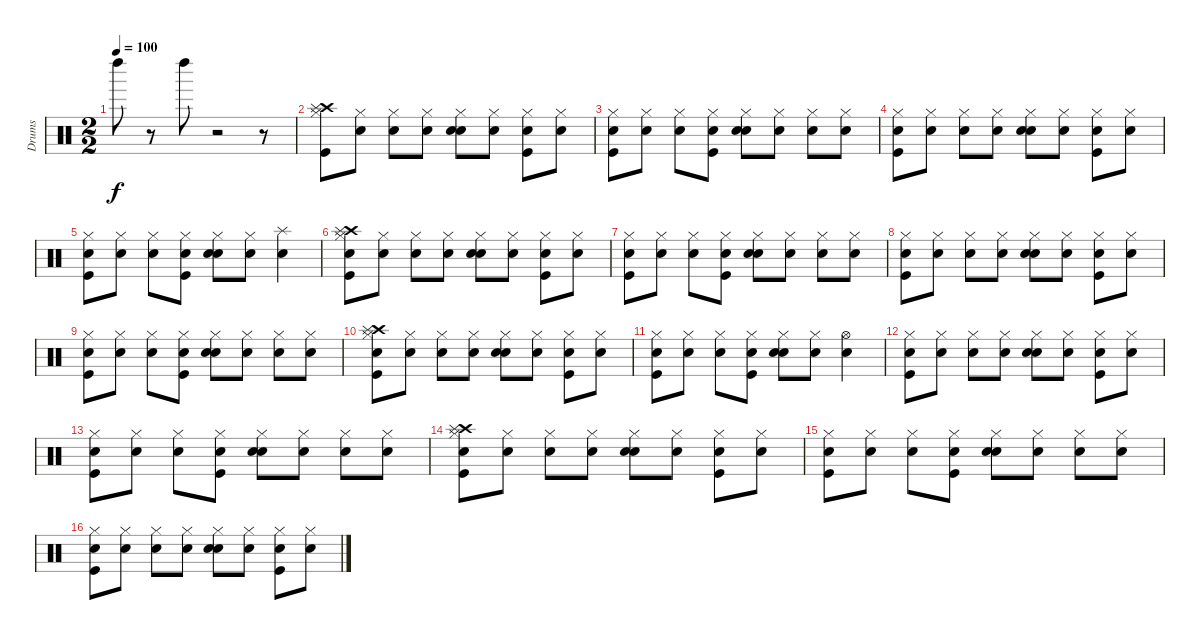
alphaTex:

\track ("Drums" "Drums") {instrument percussion}
\staff {score}
\articulation defaults
\ts (2 2)
\tempo 100
\clef neutral
\ks c "Left Maraca (hit)".8{dy f}
r.8 "Left Maraca (hit)".8 r.2 r.8 |
("Kick (hit)" "Crash high (hit)" "Splash (hit)" "Hi-Hat (closed)").8 ("Snare (hit)" "Hi-Hat (closed)").8 ("Snare (hit)" "Hi-Hat (closed)").8 ("Snare (hit)" "Hi-Hat (closed)").8 ("Snare (hit)" "Snare (hit) 2" "Hi-Hat (closed)").8 ("Snare (hit)" "Hi-Hat (closed)").8 ("Snare (hit)" "Kick (hit)" "Hi-Hat (closed)").8 ("Snare (hit)" "Hi-Hat (closed)").8 |
("Snare (hit)" "Kick (hit)" "Hi-Hat (closed)").8 ("Snare (hit)" "Hi-Hat (closed)").8 ("Snare (hit)" "Hi-Hat (closed)").8 ("Snare (hit)" "Kick (hit)" "Hi-Hat (closed)").8 ("Snare (hit)" "Snare (hit) 2" "Hi-Hat (closed)").8 ("Snare (hit)" "Hi-Hat (closed)").8 ("Snare (hit)" "Hi-Hat (closed)").8 ("Snare (hit)" "Hi-Hat (closed)").8 |
("Snare (hit)" "Kick (hit)" "Hi-Hat (closed)").8 ("Snare (hit)" "Hi-Hat (closed)").8 ("Snare (hit)" "Hi-Hat (closed)").8 ("Snare (hit)" "Hi-Hat (closed)").8 ("Snare (hit)" "Snare (hit) 2" "Hi-Hat (closed)").8 ("Snare (hit)" "Hi-Hat (closed)").8 ("Snare (hit)" "Kick (hit)" "Hi-Hat (closed)").8 ("Snare (hit)" "Hi-Hat (closed)").8 |
("Snare (hit)" "Kick (hit)" "Hi-Hat (closed)").8 ("Snare (hit)" "Hi-Hat (closed)").8 ("Snare (hit)" "Hi-Hat (closed)").8 ("Snare (hit)" "Kick (hit)" "Hi-Hat (closed)").8 ("Snare (hit)" "Snare (hit) 2" "Hi-Hat (closed)").8 ("Snare (hit)" "Hi-Hat (closed)").8 ("Snare (hit)" "Splash (hit)").4 |
("Snare (hit)" "Kick (hit)" "Crash high (hit)" "Splash (hit)" "Hi-Hat (closed)").8 ("Snare (hit)" "Hi-Hat (closed)").8 ("Snare (hit)" "Hi-Hat (closed)").8 ("Snare (hit)" "Hi-Hat (closed)").8 ("Snare (hit)" "Snare (hit) 2" "Hi-Hat (closed)").8 ("Snare (hit)" "Hi-Hat (closed)").8 ("Snare (hit)" "Kick (hit)" "Hi-Hat (closed)").8 ("Snare (hit)" "Hi-Hat (closed)").8 |
("Snare (hit)" "Kick (hit)" "Hi-Hat (closed)").8 ("Snare (hit)" "Hi-Hat (closed)").8 ("Snare (hit)" "Hi-Hat (closed)").8 ("Snare (hit)" "Kick (hit)" "Hi-Hat (closed)").8 ("Snare (hit)" "Snare (hit) 2" "Hi-Hat (closed)").8 ("Snare (hit)" "Hi-Hat (closed)").8 ("Snare (hit)" "Hi-Hat (closed)").8 ("Snare (hit)" "Hi-Hat (closed)").8 |
("Snare (hit)" "Kick (hit)" "Hi-Hat (closed)").8 ("Snare (hit)" "Hi-Hat (closed)").8 ("Snare (hit)" "Hi-Hat (closed)").8 ("Snare (hit)" "Hi-Hat (closed)").8 ("Snare (hit)" "Snare (hit) 2" "Hi-Hat (closed)").8 ("Snare (hit)" "Hi-Hat (closed)").8 ("Snare (hit)" "Kick (hit)" "Hi-Hat (closed)").8 ("Snare (hit)" "Hi-Hat (closed)").8 |
("Snare (hit)" "Kick (hit)" "Hi-Hat (closed)").8 ("Snare (hit)" "Hi-Hat (closed)").8 ("Snare (hit)" "Hi-Hat (closed)").8 ("Snare (hit)" "Kick (hit)" "Hi-Hat (closed)").8 ("Snare (hit)" "Snare (hit) 2" "Hi-Hat (closed)").8 ("Snare (hit)" "Hi-Hat (closed)").8 ("Snare (hit)" "Hi-Hat (closed)").8 ("Snare (hit)" "Hi-Hat (closed)").8 |
("Snare (hit)" "Kick (hit)" "Crash high (hit)" "Splash (hit)" "Hi-Hat (closed)").8 ("Snare (hit)" "Hi-Hat (closed)").8 ("Snare (hit)" "Hi-Hat (closed)").8 ("Snare (hit)" "Hi-Hat (closed)").8 ("Snare (hit)" "Snare (hit) 2" "Hi-Hat (closed)").8 ("Snare (hit)" "Hi-Hat (closed)").8 ("Snare (hit)" "Kick (hit)" "Hi-Hat (closed)").8 ("Snare (hit)" "Hi-Hat (closed)").8 |
("Snare (hit)" "Kick (hit)" "Hi-Hat (closed)").8 ("Snare (hit)" "Hi-Hat (closed)").8 ("Snare (hit)" "Hi-Hat (closed)").8 ("Snare (hit)" "Kick (hit)" "Hi-Hat (closed)").8 ("Snare (hit)" "Snare (hit) 2" "Hi-Hat (closed)").8 ("Snare (hit)" "Hi-Hat (closed)").8 ("Snare (hit)" "Hi-Hat (open)").4 |
("Snare (hit)" "Kick (hit)" "Hi-Hat (closed)").8 ("Snare (hit)" "Hi-Hat (closed)").8 ("Snare (hit)" "Hi-Hat (closed)").8 ("Snare (hit)" "Hi-Hat (closed)").8 ("Snare (hit)" "Snare (hit) 2" "Hi-Hat (closed)").8 ("Snare (hit)" "Hi-Hat (closed)").8 ("Snare (hit)" "Kick (hit)" "Hi-Hat (closed)").8 ("Snare (hit)" "Hi-Hat (closed)").8 |
("Snare (hit)" "Kick (hit)" "Hi-Hat (closed)").8 ("Snare (hit)" "Hi-Hat (closed)").8 ("Snare (hit)" "Hi-Hat (closed)").8 ("Snare (hit)" "Kick (hit)" "Hi-Hat (closed)").8 ("Snare (hit)" "Snare (hit) 2" "Hi-Hat (closed)").8 ("Snare (hit)" "Hi-Hat (closed)").8 ("Snare (hit)" "Hi-Hat (closed)").8 ("Snare (hit)" "Hi-Hat (closed)").8 |
("Snare (hit)" "Kick (hit)" "Crash high (hit)" "Splash (hit)" "Hi-Hat (closed)").8 ("Snare (hit)" "Hi-Hat (closed)").8 ("Snare (hit)" "Hi-Hat (closed)").8 ("Snare (hit)" "Hi-Hat (closed)").8 ("Snare (hit)" "Snare (hit) 2" "Hi-Hat (closed)").8 ("Snare (hit)" "Hi-Hat (closed)").8 ("Snare (hit)" "Kick (hit)" "Hi-Hat (closed)").8 ("Snare (hit)" "Hi-Hat (closed)").8 |
("Snare (hit)" "Kick (hit)" "Hi-Hat (closed)").8 ("Snare (hit)" "Hi-Hat (closed)").8 ("Snare (hit)" "Hi-Hat (closed)").8 ("Snare (hit)" "Kick (hit)" "Hi-Hat (closed)").8 ("Snare (hit)" "Snare (hit) 2" "Hi-Hat (closed)").8 ("Snare (hit)" "Hi-Hat (closed)").8 ("Snare (hit)" "Hi-Hat (closed)").8 ("Snare (hit)" "Hi-Hat (closed)").8 |
("Snare (hit)" "Kick (hit)" "Hi-Hat (closed)").8 ("Snare (hit)" "Hi-Hat (closed)").8 ("Snare (hit)" "Hi-Hat (closed)").8 ("Snare (hit)" "Hi-Hat (closed)").8 ("Snare (hit)" "Snare (hit) 2" "Hi-Hat (closed)").8 ("Snare (hit)" "Hi-Hat (closed)").8 ("Snare (hit)" "Kick (hit)" "Hi-Hat (closed)").8 ("Snare (hit)" "Hi-Hat (closed)").8
